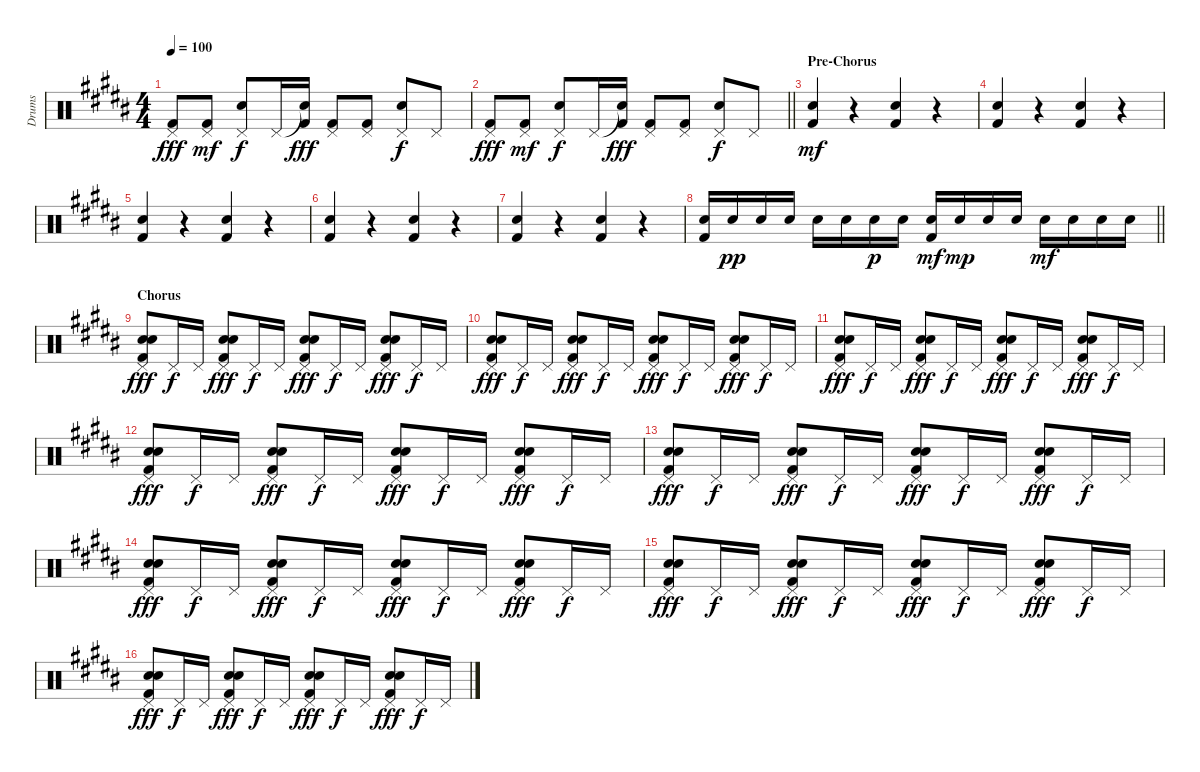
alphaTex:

\track ("Drums" "Drums") {instrument percussion}
\staff {score}
\articulation defaults
\ts (4 4)
\tempo 100
\clef neutral
\ks b
("Pedal Hi-Hat (hit)" "Kick (hit) 2").8{dy fff} ("Pedal Hi-Hat (hit)" "Kick (hit) 2").8{dy mf} ("Pedal Hi-Hat (hit)" "Snare (hit) 2").8{dy f} "Pedal Hi-Hat (hit)".16 ("Snare (hit)"{t} "Kick (hit) 2").16{dy fff} ("Pedal Hi-Hat (hit)" "Kick (hit) 2").8 ("Pedal Hi-Hat (hit)" "Kick (hit) 2").8 ("Pedal Hi-Hat (hit)" "Snare (hit) 2").8{dy f} "Pedal Hi-Hat (hit)".8 |
\barLineRight lightlight
("Pedal Hi-Hat (hit)" "Kick (hit) 2").8{dy fff} ("Pedal Hi-Hat (hit)" "Kick (hit) 2").8{dy mf} ("Pedal Hi-Hat (hit)" "Snare (hit) 2").8{dy f} "Pedal Hi-Hat (hit)".16 ("Snare (hit)"{t} "Kick (hit) 2").16{dy fff} ("Pedal Hi-Hat (hit)" "Kick (hit) 2").8 ("Pedal Hi-Hat (hit)" "Kick (hit) 2").8 ("Pedal Hi-Hat (hit)" "Snare (hit) 2").8{dy f} "Pedal Hi-Hat (hit)".8 |
\section ("" "Pre-Chorus")
("Snare (hit) 2" "Kick (hit) 2").4{dy mf} r.4 ("Snare (hit) 2" "Kick (hit) 2").4 r.4 |
("Snare (hit) 2" "Kick (hit) 2").4 r.4 ("Snare (hit) 2" "Kick (hit) 2").4 r.4 |
("Snare (hit) 2" "Kick (hit) 2").4 r.4 ("Snare (hit) 2" "Kick (hit) 2").4 r.4 |
("Snare (hit) 2" "Kick (hit) 2").4 r.4 ("Snare (hit) 2" "Kick (hit) 2").4 r.4 |
("Snare (hit) 2" "Kick (hit) 2").4 r.4 ("Snare (hit) 2" "Kick (hit) 2").4 r.4 |
\barLineRight lightlight
("Snare (hit) 2" "Kick (hit) 2").16 "Snare (hit) 2".16{dy pp} "Snare (hit) 2".16 "Snare (hit) 2".16 "Snare (hit) 2".16 "Snare (hit) 2".16 "Snare (hit) 2".16{dy p} "Snare (hit) 2".16 ("Snare (hit) 2" "Kick (hit) 2").16{dy mf} "Snare (hit) 2".16{dy mp} "Snare (hit) 2".16 "Snare (hit) 2".16 "Snare (hit) 2".16{dy mf} "Snare (hit) 2".16 "Snare (hit) 2".16 "Snare (hit) 2".16 |
\section ("" "Chorus")
("Pedal Hi-Hat (hit)" "Snare (hit) 2" "Electric Snare (hit)" "Kick (hit) 2").8{dy fff} "Pedal Hi-Hat (hit)".16{dy f} "Pedal Hi-Hat (hit)".16 ("Pedal Hi-Hat (hit)" "Snare (hit) 2" "Electric Snare (hit)" "Kick (hit) 2").8{dy fff} "Pedal Hi-Hat (hit)".16{dy f} "Pedal Hi-Hat (hit)".16 ("Pedal Hi-Hat (hit)" "Snare (hit) 2" "Electric Snare (hit)" "Kick (hit) 2").8{dy fff} "Pedal Hi-Hat (hit)".16{dy f} "Pedal Hi-Hat (hit)".16 ("Pedal Hi-Hat (hit)" "Snare (hit) 2" "Electric Snare (hit)" "Kick (hit) 2").8{dy fff} "Pedal Hi-Hat (hit)".16{dy f} "Pedal Hi-Hat (hit)".16 |
("Pedal Hi-Hat (hit)" "Snare (hit) 2" "Electric Snare (hit)" "Kick (hit) 2").8{dy fff} "Pedal Hi-Hat (hit)".16{dy f} "Pedal Hi-Hat (hit)".16 ("Pedal Hi-Hat (hit)" "Snare (hit) 2" "Electric Snare (hit)" "Kick (hit) 2").8{dy fff} "Pedal Hi-Hat (hit)".16{dy f} "Pedal Hi-Hat (hit)".16 ("Pedal Hi-Hat (hit)" "Snare (hit) 2" "Electric Snare (hit)" "Kick (hit) 2").8{dy fff} "Pedal Hi-Hat (hit)".16{dy f} "Pedal Hi-Hat (hit)".16 ("Pedal Hi-Hat (hit)" "Snare (hit) 2" "Electric Snare (hit)" "Kick (hit) 2").8{dy fff} "Pedal Hi-Hat (hit)".16{dy f} "Pedal Hi-Hat (hit)".16 |
("Pedal Hi-Hat (hit)" "Snare (hit) 2" "Electric Snare (hit)" "Kick (hit) 2").8{dy fff} "Pedal Hi-Hat (hit)".16{dy f} "Pedal Hi-Hat (hit)".16 ("Pedal Hi-Hat (hit)" "Snare (hit) 2" "Electric Snare (hit)" "Kick (hit) 2").8{dy fff} "Pedal Hi-Hat (hit)".16{dy f} "Pedal Hi-Hat (hit)".16 ("Pedal Hi-Hat (hit)" "Snare (hit) 2" "Electric Snare (hit)" "Kick (hit) 2").8{dy fff} "Pedal Hi-Hat (hit)".16{dy f} "Pedal Hi-Hat (hit)".16 ("Pedal Hi-Hat (hit)" "Snare (hit) 2" "Electric Snare (hit)" "Kick (hit) 2").8{dy fff} "Pedal Hi-Hat (hit)".16{dy f} "Pedal Hi-Hat (hit)".16 |
("Pedal Hi-Hat (hit)" "Snare (hit) 2" "Electric Snare (hit)" "Kick (hit) 2").8{dy fff} "Pedal Hi-Hat (hit)".16{dy f} "Pedal Hi-Hat (hit)".16 ("Pedal Hi-Hat (hit)" "Snare (hit) 2" "Electric Snare (hit)" "Kick (hit) 2").8{dy fff} "Pedal Hi-Hat (hit)".16{dy f} "Pedal Hi-Hat (hit)".16 ("Pedal Hi-Hat (hit)" "Snare (hit) 2" "Electric Snare (hit)" "Kick (hit) 2").8{dy fff} "Pedal Hi-Hat (hit)".16{dy f} "Pedal Hi-Hat (hit)".16 ("Pedal Hi-Hat (hit)" "Snare (hit) 2" "Electric Snare (hit)" "Kick (hit) 2").8{dy fff} "Pedal Hi-Hat (hit)".16{dy f} "Pedal Hi-Hat (hit)".16 |
("Pedal Hi-Hat (hit)" "Snare (hit) 2" "Electric Snare (hit)" "Kick (hit) 2").8{dy fff} "Pedal Hi-Hat (hit)".16{dy f} "Pedal Hi-Hat (hit)".16 ("Pedal Hi-Hat (hit)" "Snare (hit) 2" "Electric Snare (hit)" "Kick (hit) 2").8{dy fff} "Pedal Hi-Hat (hit)".16{dy f} "Pedal Hi-Hat (hit)".16 ("Pedal Hi-Hat (hit)" "Snare (hit) 2" "Electric Snare (hit)" "Kick (hit) 2").8{dy fff} "Pedal Hi-Hat (hit)".16{dy f} "Pedal Hi-Hat (hit)".16 ("Pedal Hi-Hat (hit)" "Snare (hit) 2" "Electric Snare (hit)" "Kick (hit) 2").8{dy fff} "Pedal Hi-Hat (hit)".16{dy f} "Pedal Hi-Hat (hit)".16 |
("Pedal Hi-Hat (hit)" "Snare (hit) 2" "Electric Snare (hit)" "Kick (hit) 2").8{dy fff} "Pedal Hi-Hat (hit)".16{dy f} "Pedal Hi-Hat (hit)".16 ("Pedal Hi-Hat (hit)" "Snare (hit) 2" "Electric Snare (hit)" "Kick (hit) 2").8{dy fff} "Pedal Hi-Hat (hit)".16{dy f} "Pedal Hi-Hat (hit)".16 ("Pedal Hi-Hat (hit)" "Snare (hit) 2" "Electric Snare (hit)" "Kick (hit) 2").8{dy fff} "Pedal Hi-Hat (hit)".16{dy f} "Pedal Hi-Hat (hit)".16 ("Pedal Hi-Hat (hit)" "Snare (hit) 2" "Electric Snare (hit)" "Kick (hit) 2").8{dy fff} "Pedal Hi-Hat (hit)".16{dy f} "Pedal Hi-Hat (hit)".16 |
("Pedal Hi-Hat (hit)" "Snare (hit) 2" "Electric Snare (hit)" "Kick (hit) 2").8{dy fff} "Pedal Hi-Hat (hit)".16{dy f} "Pedal Hi-Hat (hit)".16 ("Pedal Hi-Hat (hit)" "Snare (hit) 2" "Electric Snare (hit)" "Kick (hit) 2").8{dy fff} "Pedal Hi-Hat (hit)".16{dy f} "Pedal Hi-Hat (hit)".16 ("Pedal Hi-Hat (hit)" "Snare (hit) 2" "Electric Snare (hit)" "Kick (hit) 2").8{dy fff} "Pedal Hi-Hat (hit)".16{dy f} "Pedal Hi-Hat (hit)".16 ("Pedal Hi-Hat (hit)" "Snare (hit) 2" "Electric Snare (hit)" "Kick (hit) 2").8{dy fff} "Pedal Hi-Hat (hit)".16{dy f} "Pedal Hi-Hat (hit)".16 |
("Pedal Hi-Hat (hit)" "Snare (hit) 2" "Electric Snare (hit)" "Kick (hit) 2").8{dy fff} "Pedal Hi-Hat (hit)".16{dy f} "Pedal Hi-Hat (hit)".16 ("Pedal Hi-Hat (hit)" "Snare (hit) 2" "Electric Snare (hit)" "Kick (hit) 2").8{dy fff} "Pedal Hi-Hat (hit)".16{dy f} "Pedal Hi-Hat (hit)".16 ("Pedal Hi-Hat (hit)" "Snare (hit) 2" "Electric Snare (hit)" "Kick (hit) 2").8{dy fff} "Pedal Hi-Hat (hit)".16{dy f} "Pedal Hi-Hat (hit)".16 ("Pedal Hi-Hat (hit)" "Snare (hit) 2" "Electric Snare (hit)" "Kick (hit) 2").8{dy fff} "Pedal Hi-Hat (hit)".16{dy f} "Pedal Hi-Hat (hit)".16
